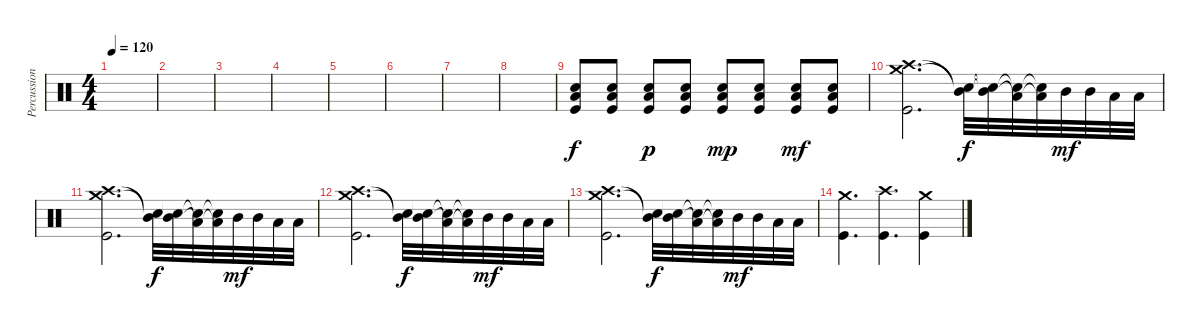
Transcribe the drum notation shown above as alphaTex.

\track ("Percussion" "Percussion") {instrument percussion}
\staff {score}
\articulation defaults
\ts (4 4)
\tempo 120
\clef neutral
\ks c
|
|
|
|
|
|
|
|
("Low Tom (hit)" "Electric Snare (hit)" "Kick (hit)").8 ("Low Tom (hit)" "Electric Snare (hit)" "Kick (hit)").8 ("Low Tom (hit)" "Electric Snare (hit)" "Kick (hit)").8{dy p} ("Low Tom (hit)" "Electric Snare (hit)" "Kick (hit)").8 ("Low Tom (hit)" "Electric Snare (hit)" "Kick (hit)").8{dy mp} ("Low Tom (hit)" "Electric Snare (hit)" "Kick (hit)").8 ("Low Tom (hit)" "Electric Snare (hit)" "Kick (hit)").8{dy mf} ("Low Tom (hit)" "Electric Snare (hit)" "Kick (hit)").8 |
("Crash medium (hit)" "Crash high (hit)" "Kick (hit)").2{d} ("Snare (hit)"{t} "Mid Tom (hit)"{t}).32{dy f} ("Snare (hit)"{t} "Mid Tom (hit)"{t}).32 ("Snare (hit)"{t} "Low Tom (hit)"{t}).32 ("Snare (hit)"{t} "Low Tom (hit)"{t}).32 "Mid Tom (hit)".32{dy mf} "Mid Tom (hit)".32 "Low Tom (hit)".32 "Low Tom (hit)".32 |
("Crash medium (hit)" "Crash high (hit)" "Kick (hit)").2{d} ("Snare (hit)"{t} "Mid Tom (hit)"{t}).32{dy f} ("Snare (hit)"{t} "Mid Tom (hit)"{t}).32 ("Snare (hit)"{t} "Low Tom (hit)"{t}).32 ("Snare (hit)"{t} "Low Tom (hit)"{t}).32 "Mid Tom (hit)".32{dy mf} "Mid Tom (hit)".32 "Low Tom (hit)".32 "Low Tom (hit)".32 |
("Crash medium (hit)" "Crash high (hit)" "Kick (hit)").2{d} ("Snare (hit)"{t} "Mid Tom (hit)"{t}).32{dy f} ("Snare (hit)"{t} "Mid Tom (hit)"{t}).32 ("Snare (hit)"{t} "Low Tom (hit)"{t}).32 ("Snare (hit)"{t} "Low Tom (hit)"{t}).32 "Mid Tom (hit)".32{dy mf} "Mid Tom (hit)".32 "Low Tom (hit)".32 "Low Tom (hit)".32 |
("Crash medium (hit)" "Crash high (hit)" "Kick (hit)").2{d} ("Snare (hit)"{t} "Mid Tom (hit)"{t}).32{dy f} ("Snare (hit)"{t} "Mid Tom (hit)"{t}).32 ("Snare (hit)"{t} "Low Tom (hit)"{t}).32 ("Snare (hit)"{t} "Low Tom (hit)"{t}).32 "Mid Tom (hit)".32{dy mf} "Mid Tom (hit)".32 "Low Tom (hit)".32 "Low Tom (hit)".32 |
("Crash medium (hit)" "Kick (hit)").4{d} ("Crash high (hit)" "Kick (hit)").4{d} ("Crash medium (hit)" "Kick (hit)").4
